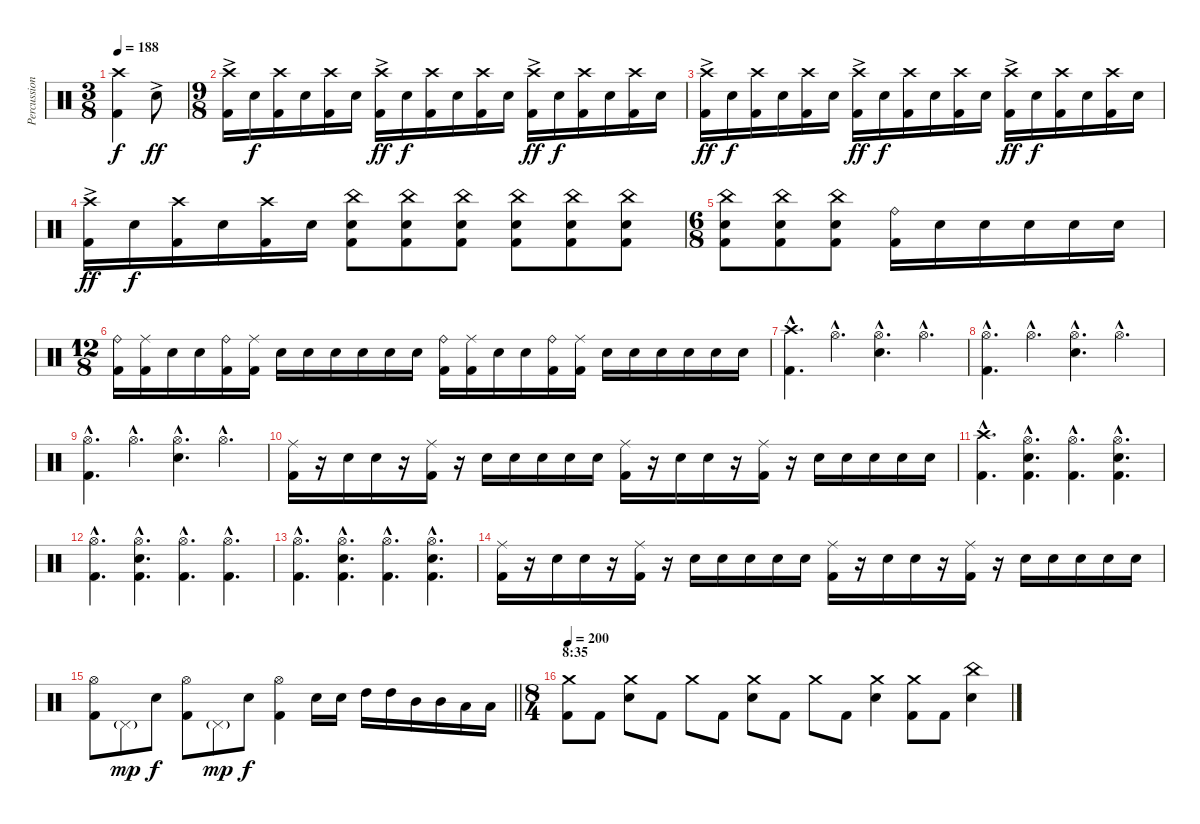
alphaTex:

\track ("Percussion" "Percussion") {instrument percussion}
\staff {score}
\articulation defaults
\ts (3 8)
\tempo 188
\clef neutral
\ks c
("Crash high (hit)" "Kick (hit) 2").4{dy f} "Electric Snare (hit)"{ac}.8{dy ff} |
\ts (9 8)
("Crash high (hit)"{ac} "Kick (hit) 2").16 "Electric Snare (hit)".16{dy f} ("Crash high (hit)" "Kick (hit) 2").16 "Electric Snare (hit)".16 ("Crash high (hit)" "Kick (hit) 2").16 "Electric Snare (hit)".16 ("Crash high (hit)"{ac} "Kick (hit) 2").16{dy ff} "Electric Snare (hit)".16{dy f} ("Crash high (hit)" "Kick (hit) 2").16 "Electric Snare (hit)".16 ("Crash high (hit)" "Kick (hit) 2").16 "Electric Snare (hit)".16 ("Crash high (hit)"{ac} "Kick (hit) 2").16{dy ff} "Electric Snare (hit)".16{dy f} ("Crash high (hit)" "Kick (hit) 2").16 "Electric Snare (hit)".16 ("Crash high (hit)" "Kick (hit) 2").16 "Electric Snare (hit)".16 |
("Crash high (hit)"{ac} "Kick (hit) 2").16{dy ff} "Electric Snare (hit)".16{dy f} ("Crash high (hit)" "Kick (hit) 2").16 "Electric Snare (hit)".16 ("Crash high (hit)" "Kick (hit) 2").16 "Electric Snare (hit)".16 ("Crash high (hit)"{ac} "Kick (hit) 2").16{dy ff} "Electric Snare (hit)".16{dy f} ("Crash high (hit)" "Kick (hit) 2").16 "Electric Snare (hit)".16 ("Crash high (hit)" "Kick (hit) 2").16 "Electric Snare (hit)".16 ("Crash high (hit)"{ac} "Kick (hit) 2").16{dy ff} "Electric Snare (hit)".16{dy f} ("Crash high (hit)" "Kick (hit) 2").16 "Electric Snare (hit)".16 ("Crash high (hit)" "Kick (hit) 2").16 "Electric Snare (hit)".16 |
("Crash high (hit)"{ac} "Kick (hit) 2").16{dy ff} "Electric Snare (hit)".16{dy f} ("Crash high (hit)" "Kick (hit) 2").16 "Electric Snare (hit)".16 ("Crash high (hit)" "Kick (hit) 2").16 "Electric Snare (hit)".16 ("China (hit)" "Kick (hit) 2" "Electric Snare (hit)").8 ("China (hit)" "Kick (hit) 2" "Electric Snare (hit)").8 ("China (hit)" "Kick (hit) 2" "Electric Snare (hit)").8 ("China (hit)" "Kick (hit) 2" "Electric Snare (hit)").8 ("China (hit)" "Kick (hit) 2" "Electric Snare (hit)").8 ("China (hit)" "Kick (hit) 2" "Electric Snare (hit)").8 |
\ts (6 8)
("China (hit)" "Kick (hit) 2" "Electric Snare (hit)").8 ("China (hit)" "Kick (hit) 2" "Electric Snare (hit)").8 ("China (hit)" "Kick (hit) 2" "Electric Snare (hit)").8 ("Ride (bell)" "Kick (hit) 2").16 "Electric Snare (hit)".16 "Electric Snare (hit)".16 "Electric Snare (hit)".16 "Electric Snare (hit)".16 "Electric Snare (hit)".16 |
\ts (12 8)
("Ride (bell)" "Kick (hit) 2").16 ("Ride (middle)" "Kick (hit) 2").16 "Electric Snare (hit)".16 "Electric Snare (hit)".16 ("Ride (bell)" "Kick (hit) 2").16 ("Ride (middle)" "Kick (hit) 2").16 "Electric Snare (hit)".16 "Electric Snare (hit)".16 "Electric Snare (hit)".16 "Electric Snare (hit)".16 "Electric Snare (hit)".16 "Electric Snare (hit)".16 ("Ride (bell)" "Kick (hit) 2").16 ("Ride (middle)" "Kick (hit) 2").16 "Electric Snare (hit)".16 "Electric Snare (hit)".16 ("Ride (bell)" "Kick (hit) 2").16 ("Ride (middle)" "Kick (hit) 2").16 "Electric Snare (hit)".16 "Electric Snare (hit)".16 "Electric Snare (hit)".16 "Electric Snare (hit)".16 "Electric Snare (hit)".16 "Electric Snare (hit)".16 |
("Crash high (hit)"{hac} "Kick (hit) 2"{hac}).4{d} "Hi-Hat (open)"{hac}.4{d} ("Hi-Hat (open)"{hac} "Electric Snare (hit)"{hac}).4{d} "Hi-Hat (open)"{hac}.4{d} |
("Hi-Hat (open)"{hac} "Kick (hit) 2"{hac}).4{d} "Hi-Hat (open)"{hac}.4{d} ("Hi-Hat (open)"{hac} "Electric Snare (hit)"{hac}).4{d} "Hi-Hat (open)"{hac}.4{d} |
("Hi-Hat (open)"{hac} "Kick (hit) 2"{hac}).4{d} "Hi-Hat (open)"{hac}.4{d} ("Hi-Hat (open)"{hac} "Electric Snare (hit)"{hac}).4{d} "Hi-Hat (open)"{hac}.4{d} |
("Ride (middle)" "Kick (hit) 2").16 r.16 "Electric Snare (hit)".16 "Electric Snare (hit)".16 r.16 ("Ride (middle)" "Kick (hit) 2").16 r.16 "Electric Snare (hit)".16 "Electric Snare (hit)".16 "Electric Snare (hit)".16 "Electric Snare (hit)".16 "Electric Snare (hit)".16 ("Ride (middle)" "Kick (hit) 2").16 r.16 "Electric Snare (hit)".16 "Electric Snare (hit)".16 r.16 ("Ride (middle)" "Kick (hit) 2").16 r.16 "Electric Snare (hit)".16 "Electric Snare (hit)".16 "Electric Snare (hit)".16 "Electric Snare (hit)".16 "Electric Snare (hit)".16 |
("Crash high (hit)"{hac} "Kick (hit) 2"{hac}).4{d} ("Hi-Hat (open)"{hac} "Kick (hit) 2"{hac} "Electric Snare (hit)"{hac}).4{d} ("Hi-Hat (open)"{hac} "Kick (hit) 2"{hac}).4{d} ("Hi-Hat (open)"{hac} "Kick (hit) 2"{hac} "Electric Snare (hit)"{hac}).4{d} |
("Hi-Hat (open)"{hac} "Kick (hit) 2"{hac}).4{d} ("Hi-Hat (open)"{hac} "Kick (hit) 2"{hac} "Electric Snare (hit)"{hac}).4{d} ("Hi-Hat (open)"{hac} "Kick (hit) 2"{hac}).4{d} ("Hi-Hat (open)"{hac} "Kick (hit) 2"{hac}).4{d} |
("Hi-Hat (open)"{hac} "Kick (hit) 2"{hac}).4{d} ("Hi-Hat (open)"{hac} "Kick (hit) 2"{hac} "Electric Snare (hit)"{hac}).4{d} ("Hi-Hat (open)"{hac} "Kick (hit) 2"{hac}).4{d} ("Hi-Hat (open)"{hac} "Kick (hit) 2"{hac} "Electric Snare (hit)"{hac}).4{d} |
("Ride (middle)" "Kick (hit) 2").16 r.16 "Electric Snare (hit)".16 "Electric Snare (hit)".16 r.16 ("Ride (middle)" "Kick (hit) 2").16 r.16 "Electric Snare (hit)".16 "Electric Snare (hit)".16 "Electric Snare (hit)".16 "Electric Snare (hit)".16 "Electric Snare (hit)".16 ("Ride (middle)" "Kick (hit) 2").16 r.16 "Electric Snare (hit)".16 "Electric Snare (hit)".16 r.16 ("Ride (middle)" "Kick (hit) 2").16 r.16 "Electric Snare (hit)".16 "Electric Snare (hit)".16 "Electric Snare (hit)".16 "Electric Snare (hit)".16 "Electric Snare (hit)".16 |
\barLineRight lightlight
("Hi-Hat (open)" "Kick (hit) 2").8 "Pedal Hi-Hat (hit)"{g}.8{dy mp} "Electric Snare (hit)".8{dy f} ("Hi-Hat (open)" "Kick (hit) 2").8 "Pedal Hi-Hat (hit)"{g}.8{dy mp} "Electric Snare (hit)".8{dy f} ("Hi-Hat (open)" "Kick (hit) 2").4 "Electric Snare (hit)".16 "Electric Snare (hit)".16 "High Tom (hit)".16 "High Tom (hit)".16 "Mid Tom (hit)".16 "Mid Tom (hit)".16 "Low Tom (hit)".16 "Low Tom (hit)".16 |
\ts (8 4)
\section ("" "8:35")
\tempo 200
("Crash medium (hit)" "Kick (hit) 2").8 "Kick (hit) 2".8 ("Electric Snare (hit)" "Crash medium (hit)").8 "Kick (hit) 2".8 "Crash medium (hit)".8 "Kick (hit) 2".8 ("Crash medium (hit)" "Electric Snare (hit)").8 "Kick (hit) 2".8 "Crash medium (hit)".8 "Kick (hit) 2".8 ("Crash medium (hit)" "Electric Snare (hit)").4 ("Kick (hit) 2" "Crash medium (hit)").8 "Kick (hit) 2".8 ("China (hit)" "Electric Snare (hit)").4
